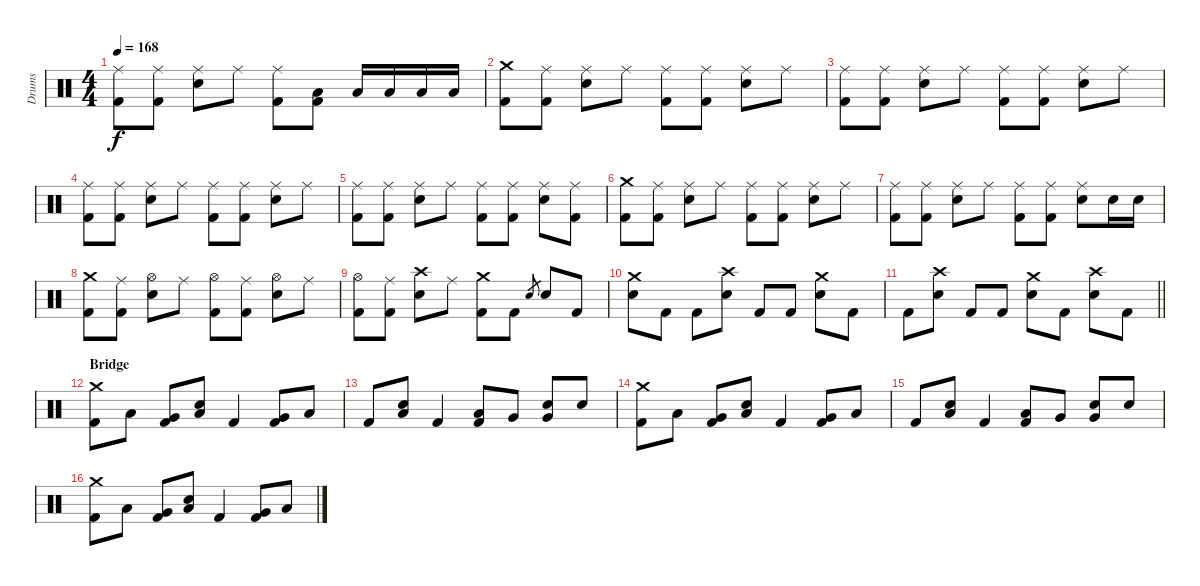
\track ("Drums" "Drums") {instrument percussion}
\staff {score}
\articulation defaults
\ts (4 4)
\tempo 168
\clef neutral
\ks c
("Ride (middle)" "Kick (hit) 2").8{dy f} ("Ride (middle)" "Kick (hit) 2").8 ("Ride (middle)" "Electric Snare (hit)").8 "Ride (middle)".8 ("Ride (middle)" "Kick (hit) 2").8 ("Low Floor Tom (hit)" "Kick (hit) 2").8 "Low Floor Tom (hit)".16 "Low Floor Tom (hit)".16 "Low Floor Tom (hit)".16 "Low Floor Tom (hit)".16 |
("Crash medium (hit)" "Kick (hit) 2").8 ("Ride (middle)" "Kick (hit) 2").8 ("Ride (middle)" "Electric Snare (hit)").8 "Ride (middle)".8 ("Ride (middle)" "Kick (hit) 2").8 ("Ride (middle)" "Kick (hit) 2").8 ("Ride (middle)" "Electric Snare (hit)").8 "Ride (middle)".8 |
("Ride (middle)" "Kick (hit) 2").8 ("Ride (middle)" "Kick (hit) 2").8 ("Ride (middle)" "Electric Snare (hit)").8 "Ride (middle)".8 ("Ride (middle)" "Kick (hit) 2").8 ("Ride (middle)" "Kick (hit) 2").8 ("Ride (middle)" "Electric Snare (hit)").8 "Ride (middle)".8 |
("Ride (middle)" "Kick (hit) 2").8 ("Ride (middle)" "Kick (hit) 2").8 ("Ride (middle)" "Electric Snare (hit)").8 "Ride (middle)".8 ("Ride (middle)" "Kick (hit) 2").8 ("Ride (middle)" "Kick (hit) 2").8 ("Ride (middle)" "Electric Snare (hit)").8 "Ride (middle)".8 |
("Ride (middle)" "Kick (hit) 2").8 ("Ride (middle)" "Kick (hit) 2").8 ("Ride (middle)" "Electric Snare (hit)").8 "Ride (middle)".8 ("Ride (middle)" "Kick (hit) 2").8 ("Ride (middle)" "Kick (hit) 2").8 ("Ride (middle)" "Electric Snare (hit)").8 ("Ride (middle)" "Kick (hit) 2").8 |
("Crash medium (hit)" "Kick (hit) 2").8 ("Ride (middle)" "Kick (hit) 2").8 ("Ride (middle)" "Electric Snare (hit)").8 "Ride (middle)".8 ("Ride (middle)" "Kick (hit) 2").8 ("Ride (middle)" "Kick (hit) 2").8 ("Ride (middle)" "Electric Snare (hit)").8 "Ride (middle)".8 |
("Ride (middle)" "Kick (hit) 2").8 ("Ride (middle)" "Kick (hit) 2").8 ("Ride (middle)" "Electric Snare (hit)").8 "Ride (middle)".8 ("Ride (middle)" "Kick (hit) 2").8 ("Ride (middle)" "Kick (hit) 2").8 ("Ride (middle)" "Electric Snare (hit)").8 "Electric Snare (hit)".16 "Electric Snare (hit)".16 |
("Crash medium (hit)" "Kick (hit) 2").8 ("Ride (middle)" "Kick (hit) 2").8 ("Hi-Hat (open)" "Electric Snare (hit)").8 "Ride (middle)".8 ("Hi-Hat (open)" "Kick (hit) 2").8 ("Ride (middle)" "Kick (hit) 2").8 ("Hi-Hat (open)" "Electric Snare (hit)").8 "Ride (middle)".8 |
("Hi-Hat (open)" "Kick (hit) 2").8 ("Ride (middle)" "Kick (hit) 2").8 ("Crash high (hit)" "Electric Snare (hit)").8 "Ride (middle)".8 ("Crash medium (hit)" "Kick (hit) 2").8 "Kick (hit) 2".8 "Electric Snare (hit)".8{gr} "Electric Snare (hit)".8 "Kick (hit) 2".8 |
("Crash medium (hit)" "Electric Snare (hit)").8 "Kick (hit) 2".8 "Kick (hit) 2".8 ("Crash high (hit)" "Electric Snare (hit)").8 "Kick (hit) 2".8 "Kick (hit) 2".8 ("Crash medium (hit)" "Electric Snare (hit)").8 "Kick (hit) 2".8 |
\barLineRight lightlight "Kick (hit) 2".8
("Crash high (hit)" "Electric Snare (hit)").8 "Kick (hit) 2".8 "Kick (hit) 2".8 ("Crash medium (hit)" "Electric Snare (hit)").8 "Kick (hit) 2".8 ("Crash high (hit)" "Electric Snare (hit)").8 "Kick (hit) 2".8 |
\section ("" "Bridge")
("Crash medium (hit)" "Kick (hit) 2").8 "Low Tom (hit)".8 ("Very Low Tom (hit)" "Kick (hit) 2").8 ("Low Floor Tom (hit)" "Electric Snare (hit)").8 "Kick (hit) 2".4 ("Very Low Tom (hit)" "Kick (hit) 2").8 "Low Floor Tom (hit)".8 |
"Kick (hit) 2".8 ("Low Floor Tom (hit)" "Electric Snare (hit)").8 "Kick (hit) 2".4 ("Low Tom (hit)" "Kick (hit) 2").8 "Very Low Tom (hit)".8 ("Very Low Tom (hit)" "Electric Snare (hit)").8 "Electric Snare (hit)".8 |
("Crash medium (hit)" "Kick (hit) 2").8 "Low Tom (hit)".8 ("Very Low Tom (hit)" "Kick (hit) 2").8 ("Low Floor Tom (hit)" "Electric Snare (hit)").8 "Kick (hit) 2".4 ("Very Low Tom (hit)" "Kick (hit) 2").8 "Low Floor Tom (hit)".8 |
"Kick (hit) 2".8 ("Low Floor Tom (hit)" "Electric Snare (hit)").8 "Kick (hit) 2".4 ("Low Tom (hit)" "Kick (hit) 2").8 "Very Low Tom (hit)".8 ("Very Low Tom (hit)" "Electric Snare (hit)").8 "Electric Snare (hit)".8 |
("Crash medium (hit)" "Kick (hit) 2").8 "Low Tom (hit)".8 ("Very Low Tom (hit)" "Kick (hit) 2").8 ("Low Floor Tom (hit)" "Electric Snare (hit)").8 "Kick (hit) 2".4 ("Very Low Tom (hit)" "Kick (hit) 2").8 "Low Floor Tom (hit)".8
